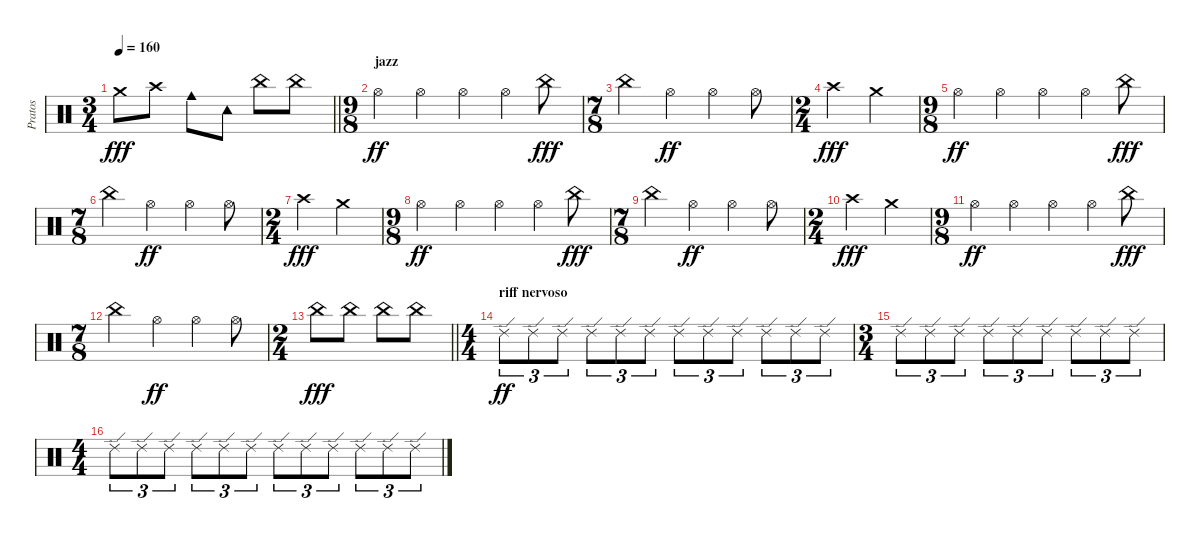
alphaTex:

\track ("Pratos" "Pratos") {instrument percussion}
\staff {score}
\articulation defaults
\ts (3 4)
\tempo 160
\clef neutral
\barLineRight lightlight
\ks c "Crash medium (hit)".8{dy fff} "Crash high (hit)".8 "Cowbell medium (hit)".8 "Tambourine (hit)".8 "China (hit)".8 "China (hit)".8
|
\ts (9 8)
\section ("" "jazz")
"Hi-Hat (open)".4{dy ff} "Hi-Hat (open)".4 "Hi-Hat (open)".4 "Hi-Hat (open)".4 "China (hit)".8{dy fff} |
\ts (7 8)
"China (hit)".4 "Hi-Hat (open)".4{dy ff} "Hi-Hat (open)".4 "Hi-Hat (open)".8 |
\ts (2 4)
"Crash high (hit)".4{dy fff} "Crash medium (hit)".4 |
\ts (9 8)
"Hi-Hat (open)".4{dy ff} "Hi-Hat (open)".4 "Hi-Hat (open)".4 "Hi-Hat (open)".4 "China (hit)".8{dy fff} |
\ts (7 8)
"China (hit)".4 "Hi-Hat (open)".4{dy ff} "Hi-Hat (open)".4 "Hi-Hat (open)".8 |
\ts (2 4)
"Crash high (hit)".4{dy fff} "Crash medium (hit)".4 |
\ts (9 8)
"Hi-Hat (open)".4{dy ff} "Hi-Hat (open)".4 "Hi-Hat (open)".4 "Hi-Hat (open)".4 "China (hit)".8{dy fff} |
\ts (7 8)
"China (hit)".4 "Hi-Hat (open)".4{dy ff} "Hi-Hat (open)".4 "Hi-Hat (open)".8 |
\ts (2 4)
"Crash high (hit)".4{dy fff} "Crash medium (hit)".4 |
\ts (9 8)
"Hi-Hat (open)".4{dy ff} "Hi-Hat (open)".4 "Hi-Hat (open)".4 "Hi-Hat (open)".4 "China (hit)".8{dy fff} |
\ts (7 8)
"China (hit)".4 "Hi-Hat (open)".4{dy ff} "Hi-Hat (open)".4 "Hi-Hat (open)".8 |
\ts (2 4)
\barLineRight lightlight "China (hit)".8{dy fff} "China (hit)".8 "China (hit)".8 "China (hit)".8
|
\ts (4 4)
\section ("" "riff nervoso")
"Ride (edge) 2".8{tu (3 2) dy ff} "Ride (edge) 2".8{tu (3 2)} "Ride (edge) 2".8{tu (3 2)} "Ride (edge) 2".8{tu (3 2)} "Ride (edge) 2".8{tu (3 2)} "Ride (edge) 2".8{tu (3 2)} "Ride (edge) 2".8{tu (3 2)} "Ride (edge) 2".8{tu (3 2)} "Ride (edge) 2".8{tu (3 2)} "Ride (edge) 2".8{tu (3 2)} "Ride (edge) 2".8{tu (3 2)} "Ride (edge) 2".8{tu (3 2)} |
\ts (3 4)
"Ride (edge) 2".8{tu (3 2)} "Ride (edge) 2".8{tu (3 2)} "Ride (edge) 2".8{tu (3 2)} "Ride (edge) 2".8{tu (3 2)} "Ride (edge) 2".8{tu (3 2)} "Ride (edge) 2".8{tu (3 2)} "Ride (edge) 2".8{tu (3 2)} "Ride (edge) 2".8{tu (3 2)} "Ride (edge) 2".8{tu (3 2)} |
\ts (4 4)
"Ride (edge) 2".8{tu (3 2)} "Ride (edge) 2".8{tu (3 2)} "Ride (edge) 2".8{tu (3 2)} "Ride (edge) 2".8{tu (3 2)} "Ride (edge) 2".8{tu (3 2)} "Ride (edge) 2".8{tu (3 2)} "Ride (edge) 2".8{tu (3 2)} "Ride (edge) 2".8{tu (3 2)} "Ride (edge) 2".8{tu (3 2)} "Ride (edge) 2".8{tu (3 2)} "Ride (edge) 2".8{tu (3 2)} "Ride (edge) 2".8{tu (3 2)}
